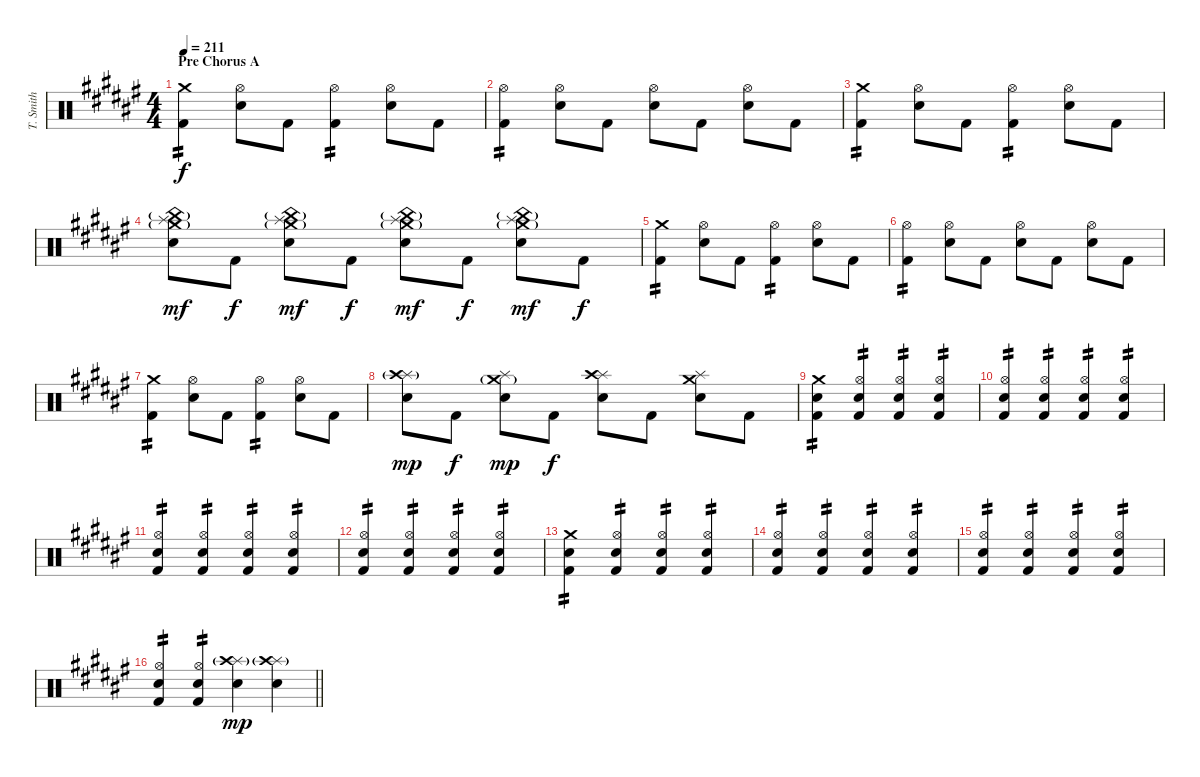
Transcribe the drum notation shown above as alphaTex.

\track ("T. Smith" "T. Smith") {instrument percussion}
\staff {score}
\articulation defaults
\ts (4 4)
\section ("" "Pre Chorus A")
\tempo 211
\clef neutral
\ks d#minor
("Crash medium (hit)" "Kick (hit) 2").4{tp 2 dy f} ("Hi-Hat (open)" "Electric Snare (hit)").8 "Kick (hit) 2".8 ("Hi-Hat (open)" "Kick (hit) 2").4{tp 2} ("Hi-Hat (open)" "Electric Snare (hit)").8 "Kick (hit) 2".8 |
("Hi-Hat (open)" "Kick (hit) 2").4{tp 2} ("Hi-Hat (open)" "Electric Snare (hit)").8 "Kick (hit) 2".8 ("Hi-Hat (open)" "Electric Snare (hit)").8 "Kick (hit) 2".8 ("Hi-Hat (open)" "Electric Snare (hit)").8 "Kick (hit) 2".8 |
("Crash medium (hit)" "Kick (hit) 2").4{tp 2} ("Hi-Hat (open)" "Electric Snare (hit)").8 "Kick (hit) 2".8 ("Hi-Hat (open)" "Kick (hit) 2").4{tp 2} ("Hi-Hat (open)" "Electric Snare (hit)").8 "Kick (hit) 2".8 |
("Splash (hit)" "Crash medium (hit)"{g} "China (hit)"{g} "Electric Snare (hit)").8{dy mf} "Kick (hit) 2".8{dy f} ("Splash (hit)" "Crash medium (hit)"{g} "China (hit)"{g} "Electric Snare (hit)").8{dy mf} "Kick (hit) 2".8{dy f} ("Splash (hit)" "Crash medium (hit)"{g} "China (hit)"{g} "Electric Snare (hit)").8{dy mf} "Kick (hit) 2".8{dy f} ("Splash (hit)" "Crash medium (hit)"{g} "China (hit)"{g} "Electric Snare (hit)").8{dy mf} "Kick (hit) 2".8{dy f} |
("Crash medium (hit)" "Kick (hit) 2").4{tp 2} ("Hi-Hat (open)" "Electric Snare (hit)").8 "Kick (hit) 2".8 ("Hi-Hat (open)" "Kick (hit) 2").4{tp 2} ("Hi-Hat (open)" "Electric Snare (hit)").8 "Kick (hit) 2".8 |
("Hi-Hat (open)" "Kick (hit) 2").4{tp 2} ("Hi-Hat (open)" "Electric Snare (hit)").8 "Kick (hit) 2".8 ("Hi-Hat (open)" "Electric Snare (hit)").8 "Kick (hit) 2".8 ("Hi-Hat (open)" "Electric Snare (hit)").8 "Kick (hit) 2".8 |
("Crash medium (hit)" "Kick (hit) 2").4{tp 2} ("Hi-Hat (open)" "Electric Snare (hit)").8 "Kick (hit) 2".8 ("Hi-Hat (open)" "Kick (hit) 2").4{tp 2} ("Hi-Hat (open)" "Electric Snare (hit)").8 "Kick (hit) 2".8 |
("Splash (hit)" "Crash high (hit)"{g} "Electric Snare (hit)").8{dy mp} "Kick (hit) 2".8{dy f} ("Splash (hit)" "Crash medium (hit)"{g} "Electric Snare (hit)").8{dy mp} "Kick (hit) 2".8{dy f} ("Splash (hit)" "Crash high (hit)" "Electric Snare (hit)").8 "Kick (hit) 2".8 ("Splash (hit)" "Crash medium (hit)" "Electric Snare (hit)").8 "Kick (hit) 2".8 |
("Crash medium (hit)" "Electric Snare (hit)" "Kick (hit) 2").4{tp 2} ("Hi-Hat (open)" "Electric Snare (hit)" "Kick (hit) 2").4{tp 2} ("Hi-Hat (open)" "Electric Snare (hit)" "Kick (hit) 2").4{tp 2} ("Hi-Hat (open)" "Electric Snare (hit)" "Kick (hit) 2").4{tp 2} |
("Hi-Hat (open)" "Electric Snare (hit)" "Kick (hit) 2").4{tp 2} ("Hi-Hat (open)" "Electric Snare (hit)" "Kick (hit) 2").4{tp 2} ("Hi-Hat (open)" "Electric Snare (hit)" "Kick (hit) 2").4{tp 2} ("Hi-Hat (open)" "Electric Snare (hit)" "Kick (hit) 2").4{tp 2} |
("Hi-Hat (open)" "Electric Snare (hit)" "Kick (hit) 2").4{tp 2} ("Hi-Hat (open)" "Electric Snare (hit)" "Kick (hit) 2").4{tp 2} ("Hi-Hat (open)" "Electric Snare (hit)" "Kick (hit) 2").4{tp 2} ("Hi-Hat (open)" "Electric Snare (hit)" "Kick (hit) 2").4{tp 2} |
("Hi-Hat (open)" "Electric Snare (hit)" "Kick (hit) 2").4{tp 2} ("Hi-Hat (open)" "Electric Snare (hit)" "Kick (hit) 2").4{tp 2} ("Hi-Hat (open)" "Electric Snare (hit)" "Kick (hit) 2").4{tp 2} ("Hi-Hat (open)" "Electric Snare (hit)" "Kick (hit) 2").4{tp 2} |
("Crash medium (hit)" "Electric Snare (hit)" "Kick (hit) 2").4{tp 2} ("Hi-Hat (open)" "Electric Snare (hit)" "Kick (hit) 2").4{tp 2} ("Hi-Hat (open)" "Electric Snare (hit)" "Kick (hit) 2").4{tp 2} ("Hi-Hat (open)" "Electric Snare (hit)" "Kick (hit) 2").4{tp 2} |
("Hi-Hat (open)" "Electric Snare (hit)" "Kick (hit) 2").4{tp 2} ("Hi-Hat (open)" "Electric Snare (hit)" "Kick (hit) 2").4{tp 2} ("Hi-Hat (open)" "Electric Snare (hit)" "Kick (hit) 2").4{tp 2} ("Hi-Hat (open)" "Electric Snare (hit)" "Kick (hit) 2").4{tp 2} |
("Hi-Hat (open)" "Electric Snare (hit)" "Kick (hit) 2").4{tp 2} ("Hi-Hat (open)" "Electric Snare (hit)" "Kick (hit) 2").4{tp 2} ("Hi-Hat (open)" "Electric Snare (hit)" "Kick (hit) 2").4{tp 2} ("Hi-Hat (open)" "Electric Snare (hit)" "Kick (hit) 2").4{tp 2} |
\barLineRight lightlight
("Hi-Hat (open)" "Electric Snare (hit)" "Kick (hit) 2").4{tp 2} ("Hi-Hat (open)" "Electric Snare (hit)" "Kick (hit) 2").4{tp 2} ("Splash (hit)" "Crash high (hit)"{g} "Electric Snare (hit)").4{dy mp} ("Splash (hit)" "Crash high (hit)"{g} "Electric Snare (hit)").4
